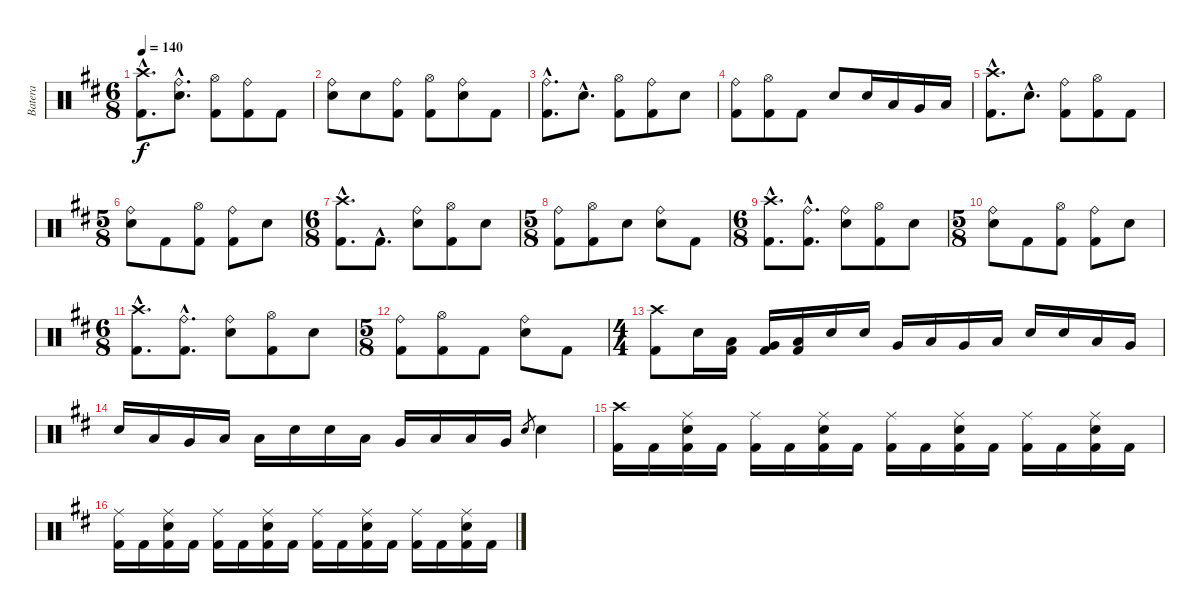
\track ("Batera" "Batera") {instrument percussion}
\staff {score}
\articulation defaults
\ts (6 8)
\tempo 140
\clef neutral
\ks bminor
("Crash high (hit)"{hac} "Kick (hit) 2"{hac}).8{d dy f} ("Ride (bell)"{hac} "Electric Snare (hit)"{hac}).8{d} ("Hi-Hat (open)" "Kick (hit) 2").8 ("Ride (bell)" "Kick (hit) 2").8 "Kick (hit) 2".8 |
("Ride (bell)" "Electric Snare (hit)").8 "Electric Snare (hit)".8 ("Ride (bell)" "Kick (hit) 2").8 ("Hi-Hat (open)" "Kick (hit) 2").8 ("Ride (bell)" "Electric Snare (hit)").8 "Kick (hit) 2".8 |
("Ride (bell)"{hac} "Kick (hit) 2"{hac}).8{d} "Electric Snare (hit)"{hac}.8{d} ("Hi-Hat (open)" "Kick (hit) 2").8 ("Ride (bell)" "Kick (hit) 2").8 "Electric Snare (hit)".8 |
("Ride (bell)" "Kick (hit) 2").8 ("Hi-Hat (open)" "Kick (hit) 2").8 "Kick (hit) 2".8 "Electric Snare (hit)".8 "Electric Snare (hit)".16 "Low Floor Tom (hit)".16 "Very Low Tom (hit)".16 "Low Floor Tom (hit)".16 |
("Crash high (hit)"{hac} "Kick (hit) 2"{hac}).8{d} "Electric Snare (hit)"{hac}.8{d} ("Ride (bell)" "Kick (hit) 2").8 ("Hi-Hat (open)" "Kick (hit) 2").8 "Kick (hit) 2".8 |
\ts (5 8)
("Ride (bell)" "Electric Snare (hit)").8 "Kick (hit) 2".8 ("Hi-Hat (open)" "Kick (hit) 2").8 ("Ride (bell)" "Kick (hit) 2").8 "Electric Snare (hit)".8 |
\ts (6 8)
("Crash high (hit)"{hac} "Kick (hit) 2"{hac}).8{d} "Kick (hit) 2"{hac}.8{d} ("Ride (bell)" "Electric Snare (hit)").8 ("Hi-Hat (open)" "Kick (hit) 2").8 "Electric Snare (hit)".8 |
\ts (5 8)
("Ride (bell)" "Kick (hit) 2").8 ("Hi-Hat (open)" "Kick (hit) 2").8 "Electric Snare (hit)".8 ("Ride (bell)" "Electric Snare (hit)").8 "Kick (hit) 2".8 |
\ts (6 8)
("Crash high (hit)"{hac} "Kick (hit) 2"{hac}).8{d} ("Ride (bell)"{hac} "Kick (hit) 2"{hac}).8{d} ("Ride (bell)" "Electric Snare (hit)").8 ("Hi-Hat (open)" "Kick (hit) 2").8 "Electric Snare (hit)".8 |
\ts (5 8)
("Ride (bell)" "Electric Snare (hit)").8 "Kick (hit) 2".8 ("Hi-Hat (open)" "Kick (hit) 2").8 ("Ride (bell)" "Kick (hit) 2").8 "Electric Snare (hit)".8 |
\ts (6 8)
("Crash high (hit)"{hac} "Kick (hit) 2"{hac}).8{d} ("Ride (bell)"{hac} "Kick (hit) 2"{hac}).8{d} ("Ride (bell)" "Electric Snare (hit)").8 ("Hi-Hat (open)" "Kick (hit) 2").8 "Electric Snare (hit)".8 |
\ts (5 8)
("Ride (bell)" "Kick (hit) 2").8 ("Hi-Hat (open)" "Kick (hit) 2").8 "Kick (hit) 2".8 ("Ride (bell)" "Electric Snare (hit)").8 "Kick (hit) 2".8 |
\ts (4 4)
("Crash high (hit)" "Kick (hit) 2").8 "Electric Snare (hit)".16 ("Low Floor Tom (hit)" "Kick (hit) 2").16 ("Very Low Tom (hit)" "Kick (hit) 2").16 ("Low Floor Tom (hit)" "Kick (hit) 2").16 "Electric Snare (hit)".16 "Electric Snare (hit)".16 "Very Low Tom (hit)".16 "Low Floor Tom (hit)".16 "Very Low Tom (hit)".16 "Low Floor Tom (hit)".16 "Electric Snare (hit)".16 "Electric Snare (hit)".16 "Low Floor Tom (hit)".16 "Very Low Tom (hit)".16 |
"Electric Snare (hit)".16 "Low Floor Tom (hit)".16 "Very Low Tom (hit)".16 "Low Floor Tom (hit)".16 "Low Tom (hit)".16 "Electric Snare (hit)".16 "Electric Snare (hit)".16 "Low Floor Tom (hit)".16 "Very Low Tom (hit)".16 "Low Floor Tom (hit)".16 "Low Floor Tom (hit)".16 "Very Low Tom (hit)".16 "Electric Snare (hit)".8{gr} "Electric Snare (hit)".4 |
("Crash high (hit)" "Kick (hit) 2").16 "Kick (hit) 2".16 ("Ride (middle)" "Electric Snare (hit)" "Kick (hit) 2").16 "Kick (hit) 2".16 ("Ride (middle)" "Kick (hit) 2").16 "Kick (hit) 2".16 ("Ride (middle)" "Electric Snare (hit)" "Kick (hit) 2").16 "Kick (hit) 2".16 ("Ride (middle)" "Kick (hit) 2").16 "Kick (hit) 2".16 ("Ride (middle)" "Electric Snare (hit)" "Kick (hit) 2").16 "Kick (hit) 2".16 ("Ride (middle)" "Kick (hit) 2").16 "Kick (hit) 2".16 ("Ride (middle)" "Electric Snare (hit)" "Kick (hit) 2").16 "Kick (hit) 2".16 |
("Ride (middle)" "Kick (hit) 2").16 "Kick (hit) 2".16 ("Ride (middle)" "Electric Snare (hit)" "Kick (hit) 2").16 "Kick (hit) 2".16 ("Ride (middle)" "Kick (hit) 2").16 "Kick (hit) 2".16 ("Ride (middle)" "Electric Snare (hit)" "Kick (hit) 2").16 "Kick (hit) 2".16 ("Ride (middle)" "Kick (hit) 2").16 "Kick (hit) 2".16 ("Ride (middle)" "Electric Snare (hit)" "Kick (hit) 2").16 "Kick (hit) 2".16 ("Ride (middle)" "Kick (hit) 2").16 "Kick (hit) 2".16 ("Ride (middle)" "Electric Snare (hit)" "Kick (hit) 2").16 "Kick (hit) 2".16
